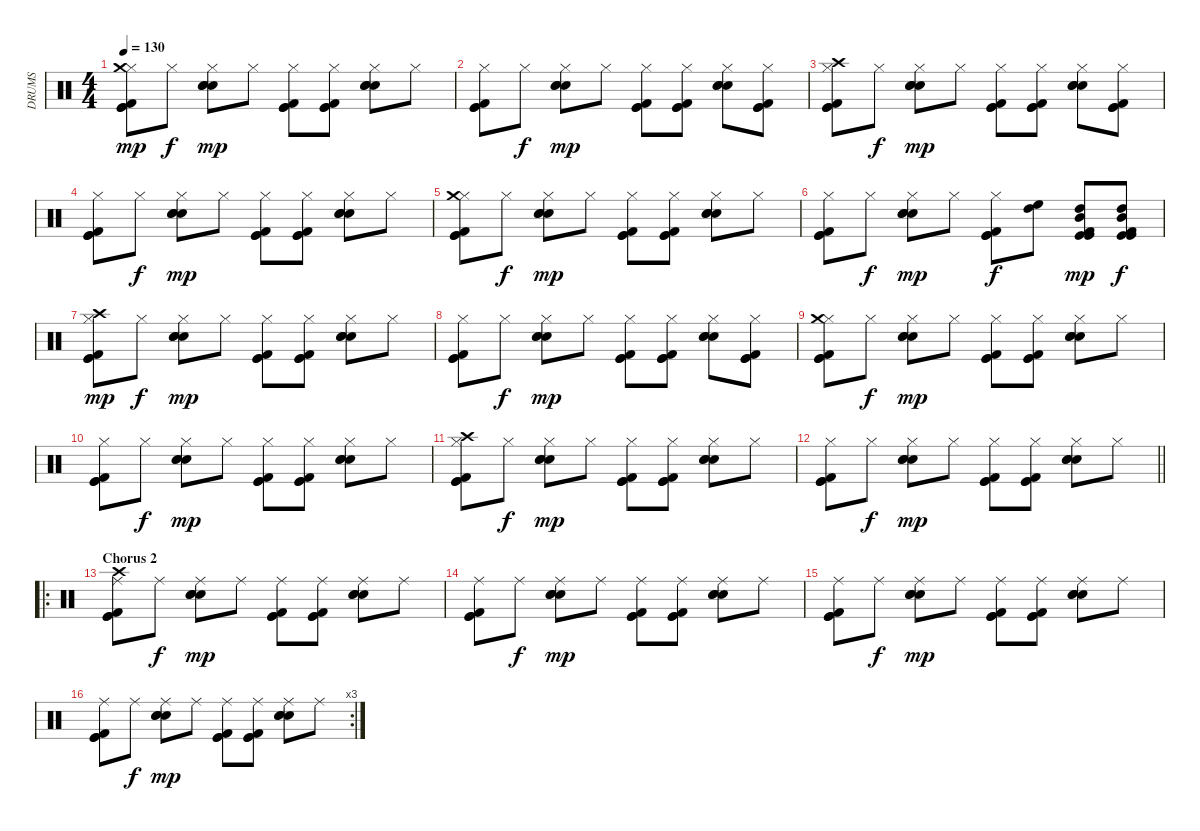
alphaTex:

\track ("DRUMS" "DRUMS") {instrument percussion}
\staff {score}
\articulation defaults
\ts (4 4)
\tempo 130
\clef neutral
\ks c
("Hi-Hat (closed)" "Kick (hit) 2" "Kick (hit)" "Kick (hit)" "Crash medium (hit)").8{dy mp} "Hi-Hat (closed)".8{dy f} ("Hi-Hat (closed)" "Electric Snare (hit)" "Snare (hit) 2" "Snare (hit) 2").8{dy mp} "Hi-Hat (closed)".8 ("Hi-Hat (closed)" "Kick (hit) 2" "Kick (hit)" "Kick (hit)").8 ("Hi-Hat (closed)" "Kick (hit) 2" "Kick (hit)" "Kick (hit)").8 ("Hi-Hat (closed)" "Electric Snare (hit)" "Snare (hit) 2" "Snare (hit) 2").8 "Hi-Hat (closed)".8 |
("Hi-Hat (closed)" "Kick (hit) 2" "Kick (hit)" "Kick (hit)").8 "Hi-Hat (closed)".8{dy f} ("Hi-Hat (closed)" "Electric Snare (hit)" "Snare (hit) 2" "Snare (hit) 2").8{dy mp} "Hi-Hat (closed)".8 ("Hi-Hat (closed)" "Kick (hit) 2" "Kick (hit)" "Kick (hit)").8 ("Hi-Hat (closed)" "Kick (hit) 2" "Kick (hit)" "Kick (hit)").8 ("Hi-Hat (closed)" "Electric Snare (hit)" "Snare (hit) 2" "Snare (hit) 2").8 ("Hi-Hat (closed)" "Kick (hit) 2" "Kick (hit)" "Kick (hit)").8 |
("Hi-Hat (closed)" "Kick (hit) 2" "Kick (hit)" "Kick (hit)" "Crash high (hit)").8 "Hi-Hat (closed)".8{dy f} ("Hi-Hat (closed)" "Electric Snare (hit)" "Snare (hit) 2" "Snare (hit) 2").8{dy mp} "Hi-Hat (closed)".8 ("Hi-Hat (closed)" "Kick (hit) 2" "Kick (hit)" "Kick (hit)").8 ("Hi-Hat (closed)" "Kick (hit) 2" "Kick (hit)" "Kick (hit)").8 ("Hi-Hat (closed)" "Electric Snare (hit)" "Snare (hit) 2" "Snare (hit) 2").8 ("Hi-Hat (closed)" "Kick (hit) 2" "Kick (hit)" "Kick (hit)").8 |
("Hi-Hat (closed)" "Kick (hit) 2" "Kick (hit)" "Kick (hit)").8 "Hi-Hat (closed)".8{dy f} ("Hi-Hat (closed)" "Electric Snare (hit)" "Snare (hit) 2" "Snare (hit) 2").8{dy mp} "Hi-Hat (closed)".8 ("Hi-Hat (closed)" "Kick (hit) 2" "Kick (hit)" "Kick (hit)").8 ("Hi-Hat (closed)" "Kick (hit) 2" "Kick (hit)" "Kick (hit)").8 ("Hi-Hat (closed)" "Electric Snare (hit)" "Snare (hit) 2" "Snare (hit) 2").8 "Hi-Hat (closed)".8 |
("Hi-Hat (closed)" "Kick (hit) 2" "Kick (hit)" "Kick (hit)" "Crash medium (hit)").8 "Hi-Hat (closed)".8{dy f} ("Hi-Hat (closed)" "Electric Snare (hit)" "Snare (hit) 2" "Snare (hit) 2").8{dy mp} "Hi-Hat (closed)".8 ("Hi-Hat (closed)" "Kick (hit) 2" "Kick (hit)" "Kick (hit)").8 ("Hi-Hat (closed)" "Kick (hit) 2" "Kick (hit)" "Kick (hit)").8 ("Hi-Hat (closed)" "Electric Snare (hit)" "Snare (hit) 2" "Snare (hit) 2").8 "Hi-Hat (closed)".8 |
("Hi-Hat (closed)" "Kick (hit) 2" "Kick (hit)" "Kick (hit)").8 "Hi-Hat (closed)".8{dy f} ("Hi-Hat (closed)" "Electric Snare (hit)" "Snare (hit) 2" "Snare (hit) 2").8{dy mp} "Hi-Hat (closed)".8 ("Hi-Hat (closed)" "Kick (hit) 2" "Kick (hit)" "Kick (hit)").8{dy f} ("High Floor Tom (hit)" "High Tom (hit)").8 ("Kick (hit) 2" "Kick (hit)" "Kick (hit)" "High Tom (hit)" "Mid Tom (hit)").8{dy mp} ("Kick (hit) 2" "Kick (hit)" "Kick (hit)" "High Tom (hit)" "Mid Tom (hit)").8{dy f} |
("Hi-Hat (closed)" "Kick (hit) 2" "Kick (hit)" "Kick (hit)" "Crash high (hit)").8{dy mp} "Hi-Hat (closed)".8{dy f} ("Hi-Hat (closed)" "Electric Snare (hit)" "Snare (hit) 2" "Snare (hit) 2").8{dy mp} "Hi-Hat (closed)".8 ("Hi-Hat (closed)" "Kick (hit) 2" "Kick (hit)" "Kick (hit)").8 ("Hi-Hat (closed)" "Kick (hit) 2" "Kick (hit)" "Kick (hit)").8 ("Hi-Hat (closed)" "Electric Snare (hit)" "Snare (hit) 2" "Snare (hit) 2").8 "Hi-Hat (closed)".8 |
("Hi-Hat (closed)" "Kick (hit) 2" "Kick (hit)" "Kick (hit)").8 "Hi-Hat (closed)".8{dy f} ("Hi-Hat (closed)" "Electric Snare (hit)" "Snare (hit) 2" "Snare (hit) 2").8{dy mp} "Hi-Hat (closed)".8 ("Hi-Hat (closed)" "Kick (hit) 2" "Kick (hit)" "Kick (hit)").8 ("Hi-Hat (closed)" "Kick (hit) 2" "Kick (hit)" "Kick (hit)").8 ("Hi-Hat (closed)" "Electric Snare (hit)" "Snare (hit) 2" "Snare (hit) 2").8 ("Hi-Hat (closed)" "Kick (hit) 2" "Kick (hit)" "Kick (hit)").8 |
("Hi-Hat (closed)" "Kick (hit) 2" "Kick (hit)" "Kick (hit)" "Crash medium (hit)").8 "Hi-Hat (closed)".8{dy f} ("Hi-Hat (closed)" "Electric Snare (hit)" "Snare (hit) 2" "Snare (hit) 2").8{dy mp} "Hi-Hat (closed)".8 ("Hi-Hat (closed)" "Kick (hit) 2" "Kick (hit)" "Kick (hit)").8 ("Hi-Hat (closed)" "Kick (hit) 2" "Kick (hit)" "Kick (hit)").8 ("Hi-Hat (closed)" "Electric Snare (hit)" "Snare (hit) 2" "Snare (hit) 2").8 "Hi-Hat (closed)".8 |
("Hi-Hat (closed)" "Kick (hit) 2" "Kick (hit)" "Kick (hit)").8 "Hi-Hat (closed)".8{dy f} ("Hi-Hat (closed)" "Electric Snare (hit)" "Snare (hit) 2" "Snare (hit) 2").8{dy mp} "Hi-Hat (closed)".8 ("Hi-Hat (closed)" "Kick (hit) 2" "Kick (hit)" "Kick (hit)").8 ("Hi-Hat (closed)" "Kick (hit) 2" "Kick (hit)" "Kick (hit)").8 ("Hi-Hat (closed)" "Electric Snare (hit)" "Snare (hit) 2" "Snare (hit) 2").8 "Hi-Hat (closed)".8 |
("Hi-Hat (closed)" "Kick (hit) 2" "Kick (hit)" "Kick (hit)" "Crash high (hit)").8 "Hi-Hat (closed)".8{dy f} ("Hi-Hat (closed)" "Electric Snare (hit)" "Snare (hit) 2" "Snare (hit) 2").8{dy mp} "Hi-Hat (closed)".8 ("Hi-Hat (closed)" "Kick (hit) 2" "Kick (hit)" "Kick (hit)").8 ("Hi-Hat (closed)" "Kick (hit) 2" "Kick (hit)" "Kick (hit)").8 ("Hi-Hat (closed)" "Electric Snare (hit)" "Snare (hit) 2" "Snare (hit) 2").8 "Hi-Hat (closed)".8 |
\barLineRight lightlight
("Hi-Hat (closed)" "Kick (hit) 2" "Kick (hit)" "Kick (hit)").8 "Hi-Hat (closed)".8{dy f} ("Hi-Hat (closed)" "Electric Snare (hit)" "Snare (hit) 2" "Snare (hit) 2").8{dy mp} "Hi-Hat (closed)".8 ("Hi-Hat (closed)" "Kick (hit) 2" "Kick (hit)" "Kick (hit)").8 ("Hi-Hat (closed)" "Kick (hit) 2" "Kick (hit)" "Kick (hit)").8 ("Hi-Hat (closed)" "Electric Snare (hit)" "Snare (hit) 2" "Snare (hit) 2").8 "Hi-Hat (closed)".8 |
\ro
\section ("" "Chorus 2")
("Ride (middle)" "Kick (hit) 2" "Kick (hit)" "Kick (hit)" "Crash high (hit)").8 "Ride (middle)".8{dy f} ("Ride (middle)" "Electric Snare (hit)" "Snare (hit) 2" "Snare (hit) 2").8{dy mp} "Ride (middle)".8 ("Ride (middle)" "Kick (hit) 2" "Kick (hit)" "Kick (hit)").8 ("Ride (middle)" "Kick (hit) 2" "Kick (hit)" "Kick (hit)").8 ("Ride (middle)" "Electric Snare (hit)" "Snare (hit) 2" "Snare (hit) 2").8 "Ride (middle)".8 |
("Ride (middle)" "Kick (hit) 2" "Kick (hit)" "Kick (hit)").8 "Ride (middle)".8{dy f} ("Ride (middle)" "Electric Snare (hit)" "Snare (hit) 2" "Snare (hit) 2").8{dy mp} "Ride (middle)".8 ("Ride (middle)" "Kick (hit) 2" "Kick (hit)" "Kick (hit)").8 ("Ride (middle)" "Kick (hit) 2" "Kick (hit)" "Kick (hit)").8 ("Ride (middle)" "Electric Snare (hit)" "Snare (hit) 2" "Snare (hit) 2").8 "Ride (middle)".8 |
("Ride (middle)" "Kick (hit) 2" "Kick (hit)" "Kick (hit)").8 "Ride (middle)".8{dy f} ("Ride (middle)" "Electric Snare (hit)" "Snare (hit) 2" "Snare (hit) 2").8{dy mp} "Ride (middle)".8 ("Ride (middle)" "Kick (hit) 2" "Kick (hit)" "Kick (hit)").8 ("Ride (middle)" "Kick (hit) 2" "Kick (hit)" "Kick (hit)").8 ("Ride (middle)" "Electric Snare (hit)" "Snare (hit) 2" "Snare (hit) 2").8 "Ride (middle)".8 |
\rc 3
("Ride (middle)" "Kick (hit) 2" "Kick (hit)" "Kick (hit)").8 "Ride (middle)".8{dy f} ("Ride (middle)" "Electric Snare (hit)" "Snare (hit) 2" "Snare (hit) 2").8{dy mp} "Ride (middle)".8 ("Ride (middle)" "Kick (hit) 2" "Kick (hit)" "Kick (hit)").8 ("Ride (middle)" "Kick (hit) 2" "Kick (hit)" "Kick (hit)").8 ("Ride (middle)" "Electric Snare (hit)" "Snare (hit) 2" "Snare (hit) 2").8 "Ride (middle)".8
